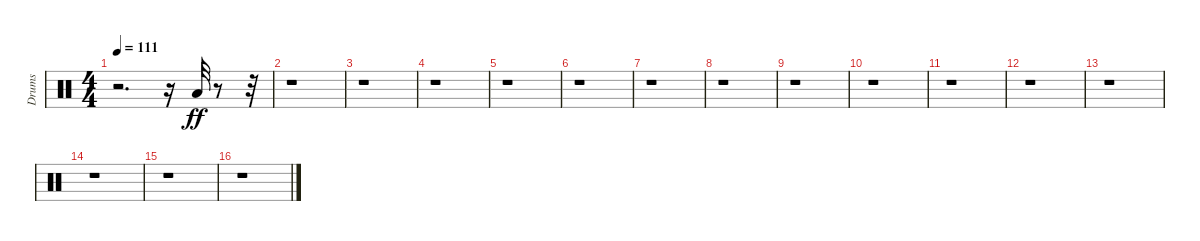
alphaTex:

\track ("Drums" "Drums") {instrument percussion}
\staff {score}
\articulation defaults
\ts (4 4)
\tempo 111
\clef neutral
\ks c
r.2{d dy f} r.16 "Low Floor Tom (hit)".32{dy ff} r.8 r.32 |
r.1 |
r.1 |
r.1 |
r.1 |
r.1 |
r.1 |
r.1 |
r.1 |
r.1 |
r.1 |
r.1 |
r.1 |
r.1 |
r.1 |
r.1
